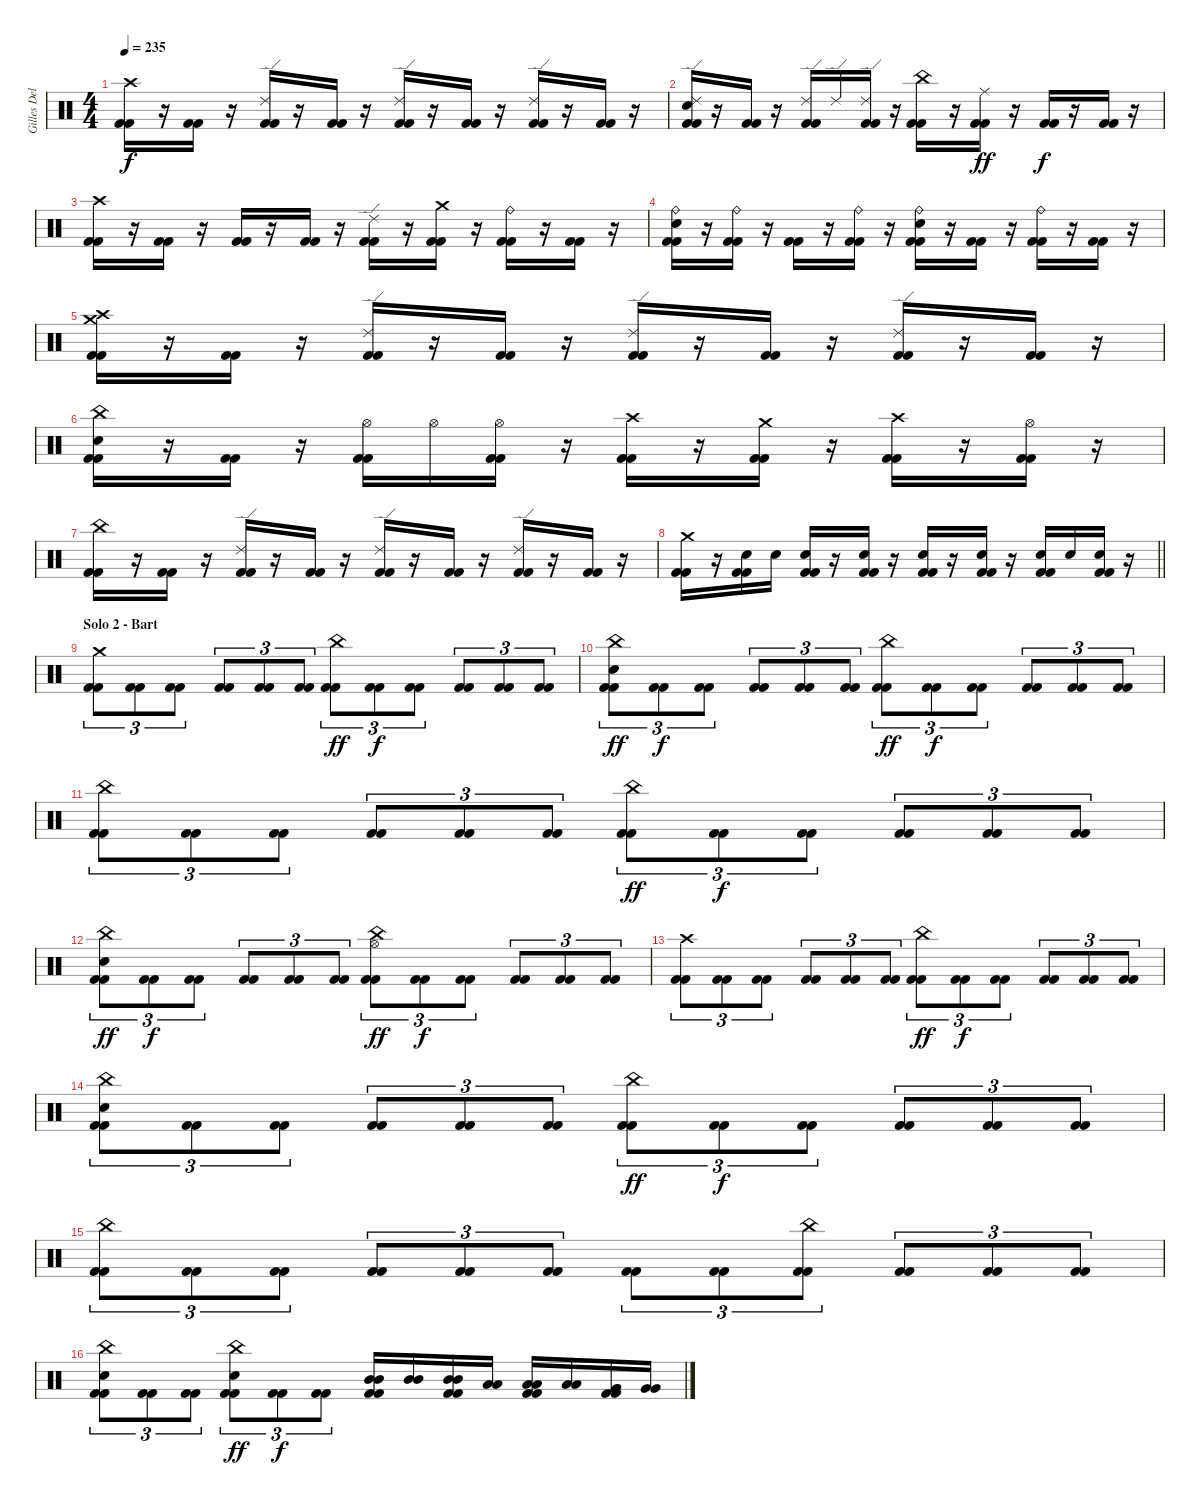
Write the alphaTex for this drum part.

\track ("Gilles Delecroix" "Gilles Del") {instrument percussion}
\staff {score}
\articulation defaults
\ts (4 4)
\tempo 235
\clef neutral
\ks c
("Crash high (hit)" "Kick (hit) 2" "Kick (hit) 2").16{dy f} r.16 ("Kick (hit) 2" "Kick (hit) 2").16 r.16 ("Ride (edge) 2" "Kick (hit) 2" "Kick (hit) 2").16 r.16 ("Kick (hit) 2" "Kick (hit) 2").16 r.16 ("Ride (edge) 2" "Kick (hit) 2" "Kick (hit) 2").16 r.16 ("Kick (hit) 2" "Kick (hit) 2").16 r.16 ("Ride (edge) 2" "Kick (hit) 2" "Kick (hit) 2").16 r.16 ("Kick (hit) 2" "Kick (hit) 2").16 r.16 |
("Ride (edge) 2" "Electric Snare (hit)" "Kick (hit) 2" "Kick (hit) 2").16 r.16 ("Kick (hit) 2" "Kick (hit) 2").16 r.16 ("Ride (edge) 2" "Kick (hit) 2" "Kick (hit) 2").16 "Ride (edge) 2".16 ("Ride (edge) 2" "Kick (hit) 2" "Kick (hit) 2").16 r.16 ("China (hit)" "Kick (hit) 2" "Kick (hit) 2").16 r.16 ("Ride (middle)" "Kick (hit) 2" "Kick (hit) 2").16{dy ff} r.16 ("Kick (hit) 2" "Kick (hit) 2").16{dy f} r.16 ("Kick (hit) 2" "Kick (hit) 2").16 r.16 |
("Crash high (hit)" "Kick (hit) 2" "Kick (hit) 2").16 r.16 ("Kick (hit) 2" "Kick (hit) 2").16 r.16 ("Kick (hit) 2" "Kick (hit) 2").16 r.16 ("Kick (hit) 2" "Kick (hit) 2").16 r.16 ("Ride (edge) 2" "Kick (hit) 2" "Kick (hit) 2").16 r.16 ("Crash medium (hit)" "Kick (hit) 2" "Kick (hit) 2").16 r.16 ("Ride (bell)" "Kick (hit) 2" "Kick (hit) 2").16 r.16 ("Kick (hit) 2" "Kick (hit) 2").16 r.16 |
("Ride (bell)" "Electric Snare (hit)" "Kick (hit) 2" "Kick (hit) 2").16 r.16 ("Ride (bell)" "Kick (hit) 2" "Kick (hit) 2").16 r.16 ("Kick (hit) 2" "Kick (hit) 2").16 r.16 ("Ride (bell)" "Kick (hit) 2" "Kick (hit) 2").16 r.16 ("Ride (bell)" "Electric Snare (hit)" "Kick (hit) 2" "Kick (hit) 2").16 r.16 ("Kick (hit) 2" "Kick (hit) 2").16 r.16 ("Ride (bell)" "Kick (hit) 2" "Kick (hit) 2").16 r.16 ("Kick (hit) 2" "Kick (hit) 2").16 r.16 |
("Crash medium (hit)" "Crash high (hit)" "Kick (hit) 2" "Kick (hit) 2").16 r.16 ("Kick (hit) 2" "Kick (hit) 2").16 r.16 ("Ride (edge) 2" "Kick (hit) 2" "Kick (hit) 2").16 r.16 ("Kick (hit) 2" "Kick (hit) 2").16 r.16 ("Ride (edge) 2" "Kick (hit) 2" "Kick (hit) 2").16 r.16 ("Kick (hit) 2" "Kick (hit) 2").16 r.16 ("Ride (edge) 2" "Kick (hit) 2" "Kick (hit) 2").16 r.16 ("Kick (hit) 2" "Kick (hit) 2").16 r.16 |
("China (hit)" "Electric Snare (hit)" "Kick (hit) 2" "Kick (hit) 2").16 r.16 ("Kick (hit) 2" "Kick (hit) 2").16 r.16 ("Hi-Hat (open)" "Kick (hit) 2" "Kick (hit) 2").16 "Hi-Hat (open)".16 ("Hi-Hat (open)" "Kick (hit) 2" "Kick (hit) 2").16 r.16 ("Crash high (hit)" "Kick (hit) 2" "Kick (hit) 2").16 r.16 ("Crash medium (hit)" "Kick (hit) 2" "Kick (hit) 2").16 r.16 ("Crash high (hit)" "Kick (hit) 2" "Kick (hit) 2").16 r.16 ("Hi-Hat (open)" "Kick (hit) 2" "Kick (hit) 2").16 r.16 |
("China (hit)" "Kick (hit) 2" "Kick (hit) 2").16 r.16 ("Kick (hit) 2" "Kick (hit) 2").16 r.16 ("Ride (edge) 2" "Kick (hit) 2" "Kick (hit) 2").16 r.16 ("Kick (hit) 2" "Kick (hit) 2").16 r.16 ("Ride (edge) 2" "Kick (hit) 2" "Kick (hit) 2").16 r.16 ("Kick (hit) 2" "Kick (hit) 2").16 r.16 ("Ride (edge) 2" "Kick (hit) 2" "Kick (hit) 2").16 r.16 ("Kick (hit) 2" "Kick (hit) 2").16 r.16 |
\barLineRight lightlight
("Crash medium (hit)" "Kick (hit) 2" "Kick (hit) 2").16 r.16 ("Electric Snare (hit)" "Kick (hit) 2" "Kick (hit) 2").16 "Electric Snare (hit)".16 ("Electric Snare (hit)" "Kick (hit) 2" "Kick (hit) 2").16 r.16 ("Electric Snare (hit)" "Kick (hit) 2" "Kick (hit) 2").16 r.16 ("Electric Snare (hit)" "Kick (hit) 2" "Kick (hit) 2").16 r.16 ("Electric Snare (hit)" "Kick (hit) 2" "Kick (hit) 2").16 r.16 ("Electric Snare (hit)" "Kick (hit) 2" "Kick (hit) 2").16 "Electric Snare (hit)".16 ("Electric Snare (hit)" "Kick (hit) 2" "Kick (hit) 2").16 r.16 |
\section ("" "Solo 2 - Bart")
("Crash medium (hit)" "Kick (hit) 2" "Kick (hit) 2").8{tu (3 2)} ("Kick (hit) 2" "Kick (hit) 2").8{tu (3 2)} ("Kick (hit) 2" "Kick (hit) 2").8{tu (3 2)} ("Kick (hit) 2" "Kick (hit) 2").8{tu (3 2)} ("Kick (hit) 2" "Kick (hit) 2").8{tu (3 2)} ("Kick (hit) 2" "Kick (hit) 2").8{tu (3 2)} ("China (hit)" "Kick (hit) 2" "Kick (hit) 2").8{tu (3 2) dy ff} ("Kick (hit) 2" "Kick (hit) 2").8{tu (3 2) dy f} ("Kick (hit) 2" "Kick (hit) 2").8{tu (3 2)} ("Kick (hit) 2" "Kick (hit) 2").8{tu (3 2)} ("Kick (hit) 2" "Kick (hit) 2").8{tu (3 2)} ("Kick (hit) 2" "Kick (hit) 2").8{tu (3 2)} |
("China (hit)" "Electric Snare (hit)" "Kick (hit) 2" "Kick (hit) 2").8{tu (3 2) dy ff} ("Kick (hit) 2" "Kick (hit) 2").8{tu (3 2) dy f} ("Kick (hit) 2" "Kick (hit) 2").8{tu (3 2)} ("Kick (hit) 2" "Kick (hit) 2").8{tu (3 2)} ("Kick (hit) 2" "Kick (hit) 2").8{tu (3 2)} ("Kick (hit) 2" "Kick (hit) 2").8{tu (3 2)} ("China (hit)" "Kick (hit) 2" "Kick (hit) 2").8{tu (3 2) dy ff} ("Kick (hit) 2" "Kick (hit) 2").8{tu (3 2) dy f} ("Kick (hit) 2" "Kick (hit) 2").8{tu (3 2)} ("Kick (hit) 2" "Kick (hit) 2").8{tu (3 2)} ("Kick (hit) 2" "Kick (hit) 2").8{tu (3 2)} ("Kick (hit) 2" "Kick (hit) 2").8{tu (3 2)} |
("China (hit)" "Kick (hit) 2" "Kick (hit) 2").8{tu (3 2)} ("Kick (hit) 2" "Kick (hit) 2").8{tu (3 2)} ("Kick (hit) 2" "Kick (hit) 2").8{tu (3 2)} ("Kick (hit) 2" "Kick (hit) 2").8{tu (3 2)} ("Kick (hit) 2" "Kick (hit) 2").8{tu (3 2)} ("Kick (hit) 2" "Kick (hit) 2").8{tu (3 2)} ("China (hit)" "Kick (hit) 2" "Kick (hit) 2").8{tu (3 2) dy ff} ("Kick (hit) 2" "Kick (hit) 2").8{tu (3 2) dy f} ("Kick (hit) 2" "Kick (hit) 2").8{tu (3 2)} ("Kick (hit) 2" "Kick (hit) 2").8{tu (3 2)} ("Kick (hit) 2" "Kick (hit) 2").8{tu (3 2)} ("Kick (hit) 2" "Kick (hit) 2").8{tu (3 2)} |
("China (hit)" "Electric Snare (hit)" "Kick (hit) 2" "Kick (hit) 2").8{tu (3 2) dy ff} ("Kick (hit) 2" "Kick (hit) 2").8{tu (3 2) dy f} ("Kick (hit) 2" "Kick (hit) 2").8{tu (3 2)} ("Kick (hit) 2" "Kick (hit) 2").8{tu (3 2)} ("Kick (hit) 2" "Kick (hit) 2").8{tu (3 2)} ("Kick (hit) 2" "Kick (hit) 2").8{tu (3 2)} ("Hi-Hat (open)" "China (hit)" "Kick (hit) 2" "Kick (hit) 2").8{tu (3 2) dy ff} ("Kick (hit) 2" "Kick (hit) 2").8{tu (3 2) dy f} ("Kick (hit) 2" "Kick (hit) 2").8{tu (3 2)} ("Kick (hit) 2" "Kick (hit) 2").8{tu (3 2)} ("Kick (hit) 2" "Kick (hit) 2").8{tu (3 2)} ("Kick (hit) 2" "Kick (hit) 2").8{tu (3 2)} |
("Crash high (hit)" "Kick (hit) 2" "Kick (hit) 2").8{tu (3 2)} ("Kick (hit) 2" "Kick (hit) 2").8{tu (3 2)} ("Kick (hit) 2" "Kick (hit) 2").8{tu (3 2)} ("Kick (hit) 2" "Kick (hit) 2").8{tu (3 2)} ("Kick (hit) 2" "Kick (hit) 2").8{tu (3 2)} ("Kick (hit) 2" "Kick (hit) 2").8{tu (3 2)} ("China (hit)" "Kick (hit) 2" "Kick (hit) 2").8{tu (3 2) dy ff} ("Kick (hit) 2" "Kick (hit) 2").8{tu (3 2) dy f} ("Kick (hit) 2" "Kick (hit) 2").8{tu (3 2)} ("Kick (hit) 2" "Kick (hit) 2").8{tu (3 2)} ("Kick (hit) 2" "Kick (hit) 2").8{tu (3 2)} ("Kick (hit) 2" "Kick (hit) 2").8{tu (3 2)} |
("China (hit)" "Electric Snare (hit)" "Kick (hit) 2" "Kick (hit) 2").8{tu (3 2)} ("Kick (hit) 2" "Kick (hit) 2").8{tu (3 2)} ("Kick (hit) 2" "Kick (hit) 2").8{tu (3 2)} ("Kick (hit) 2" "Kick (hit) 2").8{tu (3 2)} ("Kick (hit) 2" "Kick (hit) 2").8{tu (3 2)} ("Kick (hit) 2" "Kick (hit) 2").8{tu (3 2)} ("China (hit)" "Kick (hit) 2" "Kick (hit) 2").8{tu (3 2) dy ff} ("Kick (hit) 2" "Kick (hit) 2").8{tu (3 2) dy f} ("Kick (hit) 2" "Kick (hit) 2").8{tu (3 2)} ("Kick (hit) 2" "Kick (hit) 2").8{tu (3 2)} ("Kick (hit) 2" "Kick (hit) 2").8{tu (3 2)} ("Kick (hit) 2" "Kick (hit) 2").8{tu (3 2)} |
("China (hit)" "Kick (hit) 2" "Kick (hit) 2").8{tu (3 2)} ("Kick (hit) 2" "Kick (hit) 2").8{tu (3 2)} ("Kick (hit) 2" "Kick (hit) 2").8{tu (3 2)} ("Kick (hit) 2" "Kick (hit) 2").8{tu (3 2)} ("Kick (hit) 2" "Kick (hit) 2").8{tu (3 2)} ("Kick (hit) 2" "Kick (hit) 2").8{tu (3 2)} ("Kick (hit) 2" "Kick (hit) 2").8{tu (3 2)} ("Kick (hit) 2" "Kick (hit) 2").8{tu (3 2)} ("China (hit)" "Kick (hit) 2" "Kick (hit) 2").8{tu (3 2)} ("Kick (hit) 2" "Kick (hit) 2").8{tu (3 2)} ("Kick (hit) 2" "Kick (hit) 2").8{tu (3 2)} ("Kick (hit) 2" "Kick (hit) 2").8{tu (3 2)} |
("China (hit)" "Electric Snare (hit)" "Kick (hit) 2" "Kick (hit) 2").8{tu (3 2)} ("Kick (hit) 2" "Kick (hit) 2").8{tu (3 2)} ("Kick (hit) 2" "Kick (hit) 2").8{tu (3 2)} ("China (hit)" "Electric Snare (hit)" "Kick (hit) 2" "Kick (hit) 2").8{tu (3 2) dy ff} ("Kick (hit) 2" "Kick (hit) 2").8{tu (3 2) dy f} ("Kick (hit) 2" "Kick (hit) 2").8{tu (3 2)} ("Mid Tom (hit)" "Mid Tom (hit)" "Kick (hit) 2" "Kick (hit) 2").16 ("Mid Tom (hit)" "Mid Tom (hit)").16 ("Mid Tom (hit)" "Mid Tom (hit)" "Kick (hit) 2" "Kick (hit) 2").16 ("Low Tom (hit)" "Low Tom (hit)").16 ("Low Tom (hit)" "Low Tom (hit)" "Kick (hit) 2" "Kick (hit) 2").16 ("Low Tom (hit)" "Low Tom (hit)").16 ("Very Low Tom (hit)" "Very Low Tom (hit)" "Kick (hit) 2" "Kick (hit) 2").16 ("Very Low Tom (hit)" "Very Low Tom (hit)").16
